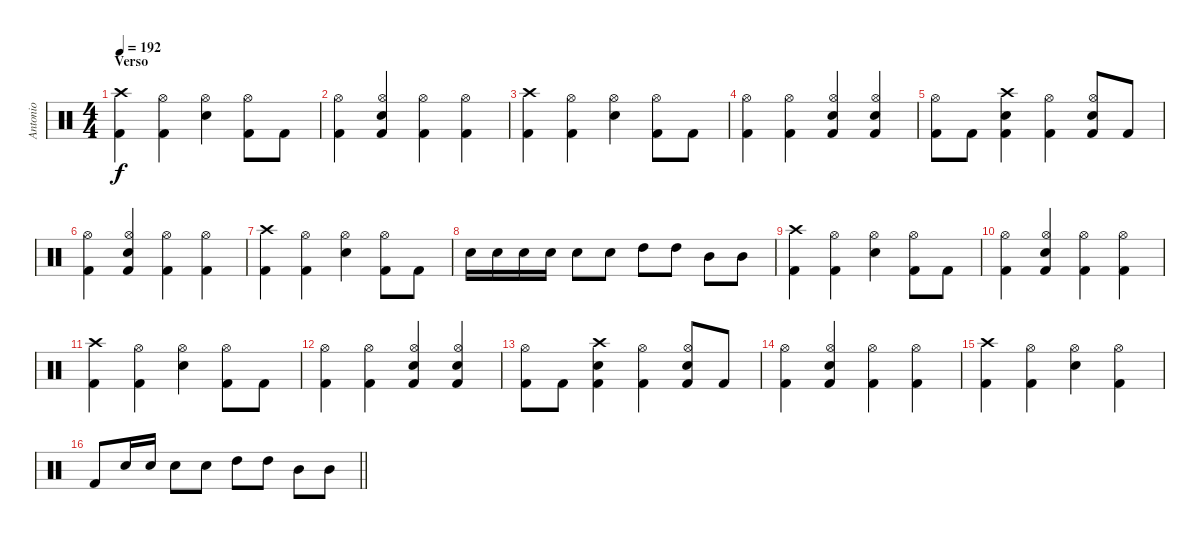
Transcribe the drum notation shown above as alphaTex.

\track ("Antonio" "Antonio") {instrument percussion}
\staff {score}
\articulation defaults
\ts (4 4)
\section ("" "Verso")
\tempo 192
\clef neutral
\ks c
("Crash high (hit)" "Kick (hit) 2").4{dy f} ("Hi-Hat (open)" "Kick (hit) 2").4 ("Hi-Hat (open)" "Electric Snare (hit)").4 ("Hi-Hat (open)" "Kick (hit) 2").8 "Kick (hit) 2".8 |
("Hi-Hat (open)" "Kick (hit) 2").4 ("Hi-Hat (open)" "Electric Snare (hit)" "Kick (hit) 2").4 ("Hi-Hat (open)" "Kick (hit) 2").4 ("Hi-Hat (open)" "Kick (hit) 2").4 |
("Crash high (hit)" "Kick (hit) 2").4 ("Hi-Hat (open)" "Kick (hit) 2").4 ("Hi-Hat (open)" "Electric Snare (hit)").4 ("Hi-Hat (open)" "Kick (hit) 2").8 "Kick (hit) 2".8 |
("Hi-Hat (open)" "Kick (hit) 2").4 ("Hi-Hat (open)" "Kick (hit) 2").4 ("Hi-Hat (open)" "Electric Snare (hit)" "Kick (hit) 2").4 ("Hi-Hat (open)" "Electric Snare (hit)" "Kick (hit) 2").4 |
("Hi-Hat (open)" "Kick (hit) 2").8 "Kick (hit) 2".8 ("Crash high (hit)" "Electric Snare (hit)" "Kick (hit) 2").4 ("Hi-Hat (open)" "Kick (hit) 2").4 ("Hi-Hat (open)" "Electric Snare (hit)" "Kick (hit) 2").8 "Kick (hit) 2".8 |
("Hi-Hat (open)" "Kick (hit) 2").4 ("Hi-Hat (open)" "Electric Snare (hit)" "Kick (hit) 2").4 ("Hi-Hat (open)" "Kick (hit) 2").4 ("Hi-Hat (open)" "Kick (hit) 2").4 |
("Crash high (hit)" "Kick (hit) 2").4 ("Hi-Hat (open)" "Kick (hit) 2").4 ("Hi-Hat (open)" "Electric Snare (hit)").4 ("Hi-Hat (open)" "Kick (hit) 2").8 "Kick (hit) 2".8 |
"Electric Snare (hit)".16 "Electric Snare (hit)".16 "Electric Snare (hit)".16 "Electric Snare (hit)".16 "Electric Snare (hit)".8 "Electric Snare (hit)".8 "High Tom (hit)".8 "High Tom (hit)".8 "Mid Tom (hit)".8 "Mid Tom (hit)".8 |
("Crash high (hit)" "Kick (hit) 2").4 ("Hi-Hat (open)" "Kick (hit) 2").4 ("Hi-Hat (open)" "Electric Snare (hit)").4 ("Hi-Hat (open)" "Kick (hit) 2").8 "Kick (hit) 2".8 |
("Hi-Hat (open)" "Kick (hit) 2").4 ("Hi-Hat (open)" "Electric Snare (hit)" "Kick (hit) 2").4 ("Hi-Hat (open)" "Kick (hit) 2").4 ("Hi-Hat (open)" "Kick (hit) 2").4 |
("Crash high (hit)" "Kick (hit) 2").4 ("Hi-Hat (open)" "Kick (hit) 2").4 ("Hi-Hat (open)" "Electric Snare (hit)").4 ("Hi-Hat (open)" "Kick (hit) 2").8 "Kick (hit) 2".8 |
("Hi-Hat (open)" "Kick (hit) 2").4 ("Hi-Hat (open)" "Kick (hit) 2").4 ("Hi-Hat (open)" "Electric Snare (hit)" "Kick (hit) 2").4 ("Hi-Hat (open)" "Electric Snare (hit)" "Kick (hit) 2").4 |
("Hi-Hat (open)" "Kick (hit) 2").8 "Kick (hit) 2".8 ("Crash high (hit)" "Electric Snare (hit)" "Kick (hit) 2").4 ("Hi-Hat (open)" "Kick (hit) 2").4 ("Hi-Hat (open)" "Electric Snare (hit)" "Kick (hit) 2").8 "Kick (hit) 2".8 |
("Hi-Hat (open)" "Kick (hit) 2").4 ("Hi-Hat (open)" "Electric Snare (hit)" "Kick (hit) 2").4 ("Hi-Hat (open)" "Kick (hit) 2").4 ("Hi-Hat (open)" "Kick (hit) 2").4 |
("Crash high (hit)" "Kick (hit) 2").4 ("Hi-Hat (open)" "Kick (hit) 2").4 ("Hi-Hat (open)" "Electric Snare (hit)").4 ("Hi-Hat (open)" "Kick (hit) 2").4 |
\barLineRight lightlight "Kick (hit) 2".8 "Electric Snare (hit)".16 "Electric Snare (hit)".16 "Electric Snare (hit)".8 "Electric Snare (hit)".8 "High Tom (hit)".8 "High Tom (hit)".8 "Mid Tom (hit)".8 "Mid Tom (hit)".8
